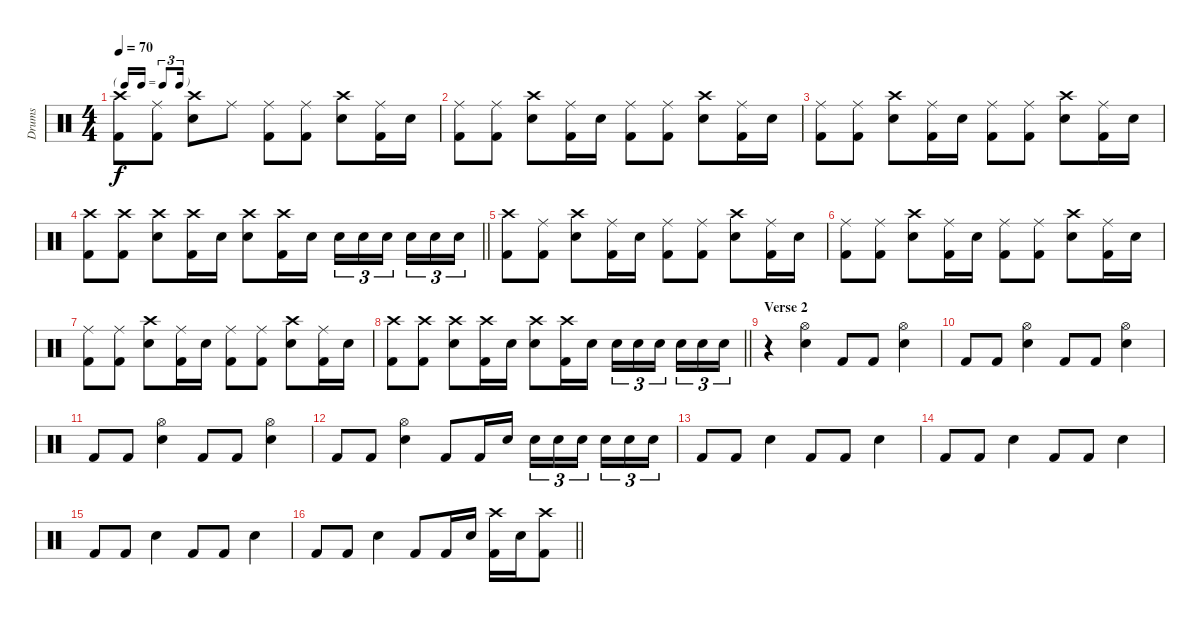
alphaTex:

\track ("Drums" "Drums") {instrument percussion}
\staff {score}
\articulation defaults
\ts (4 4)
\tf triplet16th
\tempo 70
\clef neutral
\ks c
("Crash high (hit)" "Kick (hit) 2").8{dy f} ("Ride (middle)" "Kick (hit) 2").8 ("Crash high (hit)" "Snare (hit) 2").8 "Ride (middle)".8 ("Ride (middle)" "Kick (hit) 2").8 ("Ride (middle)" "Kick (hit) 2").8 ("Crash high (hit)" "Snare (hit) 2").8 ("Ride (middle)" "Kick (hit) 2").16 "Snare (hit) 2".16 |
("Ride (middle)" "Kick (hit) 2").8 ("Ride (middle)" "Kick (hit) 2").8 ("Crash high (hit)" "Snare (hit) 2").8 ("Ride (middle)" "Kick (hit) 2").16 "Snare (hit) 2".16 ("Ride (middle)" "Kick (hit) 2").8 ("Ride (middle)" "Kick (hit) 2").8 ("Crash high (hit)" "Snare (hit) 2").8 ("Ride (middle)" "Kick (hit) 2").16 "Snare (hit) 2".16 |
("Ride (middle)" "Kick (hit) 2").8 ("Ride (middle)" "Kick (hit) 2").8 ("Crash high (hit)" "Snare (hit) 2").8 ("Ride (middle)" "Kick (hit) 2").16 "Snare (hit) 2".16 ("Ride (middle)" "Kick (hit) 2").8 ("Ride (middle)" "Kick (hit) 2").8 ("Crash high (hit)" "Snare (hit) 2").8 ("Ride (middle)" "Kick (hit) 2").16 "Snare (hit) 2".16 |
\barLineRight lightlight
("Crash high (hit)" "Kick (hit) 2").8 ("Crash high (hit)" "Kick (hit) 2").8 ("Crash high (hit)" "Snare (hit) 2").8 ("Crash high (hit)" "Kick (hit) 2").16 "Snare (hit) 2".16 ("Crash high (hit)" "Snare (hit) 2").8 ("Crash high (hit)" "Kick (hit) 2").16 "Snare (hit) 2".16 "Snare (hit) 2".16{tu (3 2)} "Snare (hit) 2".16{tu (3 2)} "Snare (hit) 2".16{tu (3 2) beam splitsecondary} "Snare (hit) 2".16{tu (3 2)} "Snare (hit) 2".16{tu (3 2)} "Snare (hit) 2".16{tu (3 2)} |
("Crash high (hit)" "Kick (hit) 2").8 ("Ride (middle)" "Kick (hit) 2").8 ("Crash high (hit)" "Snare (hit) 2").8 ("Ride (middle)" "Kick (hit) 2").16 "Snare (hit) 2".16 ("Ride (middle)" "Kick (hit) 2").8 ("Ride (middle)" "Kick (hit) 2").8 ("Crash high (hit)" "Snare (hit) 2").8 ("Ride (middle)" "Kick (hit) 2").16 "Snare (hit) 2".16 |
("Ride (middle)" "Kick (hit) 2").8 ("Ride (middle)" "Kick (hit) 2").8 ("Crash high (hit)" "Snare (hit) 2").8 ("Ride (middle)" "Kick (hit) 2").16 "Snare (hit) 2".16 ("Ride (middle)" "Kick (hit) 2").8 ("Ride (middle)" "Kick (hit) 2").8 ("Crash high (hit)" "Snare (hit) 2").8 ("Ride (middle)" "Kick (hit) 2").16 "Snare (hit) 2".16 |
("Ride (middle)" "Kick (hit) 2").8 ("Ride (middle)" "Kick (hit) 2").8 ("Crash high (hit)" "Snare (hit) 2").8 ("Ride (middle)" "Kick (hit) 2").16 "Snare (hit) 2".16 ("Ride (middle)" "Kick (hit) 2").8 ("Ride (middle)" "Kick (hit) 2").8 ("Crash high (hit)" "Snare (hit) 2").8 ("Ride (middle)" "Kick (hit) 2").16 "Snare (hit) 2".16 |
\barLineRight lightlight
("Crash high (hit)" "Kick (hit) 2").8 ("Crash high (hit)" "Kick (hit) 2").8 ("Crash high (hit)" "Snare (hit) 2").8 ("Crash high (hit)" "Kick (hit) 2").16 "Snare (hit) 2".16 ("Crash high (hit)" "Snare (hit) 2").8 ("Crash high (hit)" "Kick (hit) 2").16 "Snare (hit) 2".16 "Snare (hit) 2".16{tu (3 2)} "Snare (hit) 2".16{tu (3 2)} "Snare (hit) 2".16{tu (3 2) beam splitsecondary} "Snare (hit) 2".16{tu (3 2)} "Snare (hit) 2".16{tu (3 2)} "Snare (hit) 2".16{tu (3 2)} |
\section ("" "Verse 2")
r.4 ("Hi-Hat (open)" "Snare (hit) 2").4 "Kick (hit) 2".8 "Kick (hit) 2".8 ("Hi-Hat (open)" "Snare (hit) 2").4 |
"Kick (hit) 2".8 "Kick (hit) 2".8 ("Hi-Hat (open)" "Snare (hit) 2").4 "Kick (hit) 2".8 "Kick (hit) 2".8 ("Hi-Hat (open)" "Snare (hit) 2").4 |
"Kick (hit) 2".8 "Kick (hit) 2".8 ("Hi-Hat (open)" "Snare (hit) 2").4 "Kick (hit) 2".8 "Kick (hit) 2".8 ("Hi-Hat (open)" "Snare (hit) 2").4 |
"Kick (hit) 2".8 "Kick (hit) 2".8 ("Hi-Hat (open)" "Snare (hit) 2").4 "Kick (hit) 2".8 "Kick (hit) 2".16 "Snare (hit) 2".16 "Snare (hit) 2".16{tu (3 2)} "Snare (hit) 2".16{tu (3 2)} "Snare (hit) 2".16{tu (3 2) beam splitsecondary} "Snare (hit) 2".16{tu (3 2)} "Snare (hit) 2".16{tu (3 2)} "Snare (hit) 2".16{tu (3 2)} |
"Kick (hit) 2".8 "Kick (hit) 2".8 "Snare (hit) 2".4 "Kick (hit) 2".8 "Kick (hit) 2".8 "Snare (hit) 2".4 |
"Kick (hit) 2".8 "Kick (hit) 2".8 "Snare (hit) 2".4 "Kick (hit) 2".8 "Kick (hit) 2".8 "Snare (hit) 2".4 |
"Kick (hit) 2".8 "Kick (hit) 2".8 "Snare (hit) 2".4 "Kick (hit) 2".8 "Kick (hit) 2".8 "Snare (hit) 2".4 |
\barLineRight lightlight "Kick (hit) 2".8 "Kick (hit) 2".8 "Snare (hit) 2".4 "Kick (hit) 2".8 "Kick (hit) 2".16 "Snare (hit) 2".16
("Crash high (hit)" "Kick (hit) 2").16 "Snare (hit) 2".16 ("Crash high (hit)" "Kick (hit) 2").8
